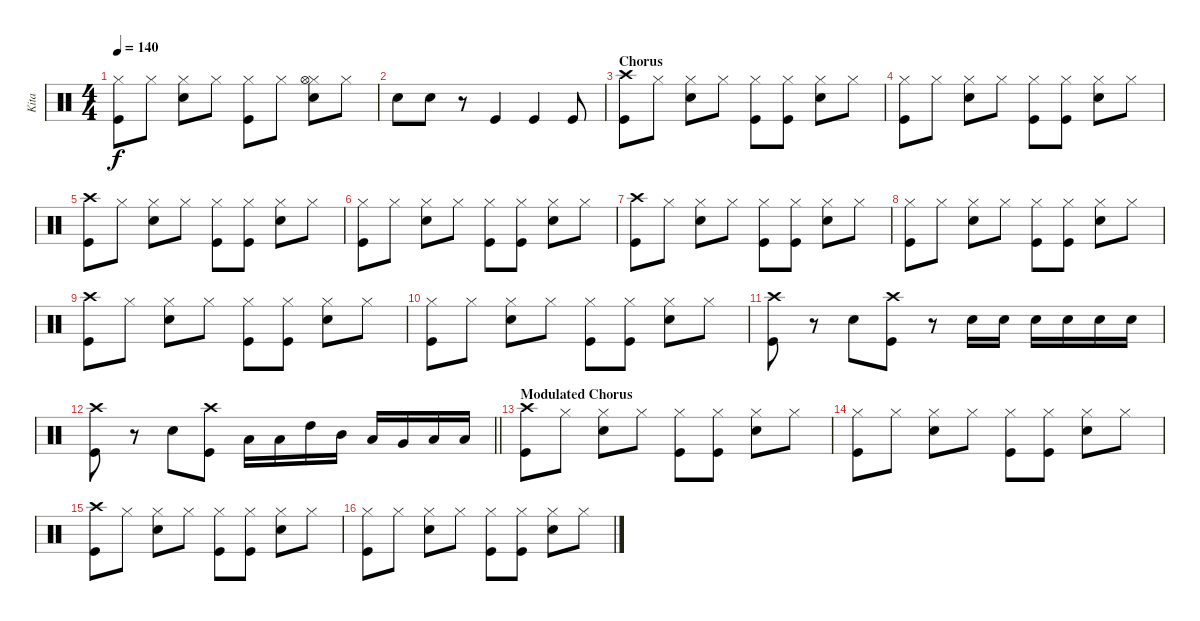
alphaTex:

\track ("Kita" "Kita") {instrument percussion}
\staff {score}
\articulation defaults
\ts (4 4)
\tempo 140
\clef neutral
\ks c
("Hi-Hat (closed)" "Kick (hit)").8{dy f} "Hi-Hat (closed)".8 ("Hi-Hat (closed)" "Snare (hit) 2").8 "Hi-Hat (closed)".8 ("Hi-Hat (closed)" "Kick (hit)").8 "Hi-Hat (closed)".8 ("Hi-Hat (closed)" "Snare (hit) 2" "Hi-Hat (open)").8 "Hi-Hat (closed)".8 |
"Snare (hit) 2".8 "Snare (hit) 2".8 r.8 "Kick (hit)".4 "Kick (hit)".4 "Kick (hit)".8 |
\section ("" "Chorus")
("Crash high (hit)" "Kick (hit)").8 "Hi-Hat (closed)".8 ("Hi-Hat (closed)" "Snare (hit) 2").8 "Hi-Hat (closed)".8 ("Hi-Hat (closed)" "Kick (hit)").8 ("Hi-Hat (closed)" "Kick (hit)").8 ("Hi-Hat (closed)" "Snare (hit) 2").8 "Hi-Hat (closed)".8 |
("Hi-Hat (closed)" "Kick (hit)").8 "Hi-Hat (closed)".8 ("Hi-Hat (closed)" "Snare (hit) 2").8 "Hi-Hat (closed)".8 ("Hi-Hat (closed)" "Kick (hit)").8 ("Hi-Hat (closed)" "Kick (hit)").8 ("Hi-Hat (closed)" "Snare (hit) 2").8 "Hi-Hat (closed)".8 |
("Crash high (hit)" "Kick (hit)").8 "Hi-Hat (closed)".8 ("Hi-Hat (closed)" "Snare (hit) 2").8 "Hi-Hat (closed)".8 ("Hi-Hat (closed)" "Kick (hit)").8 ("Hi-Hat (closed)" "Kick (hit)").8 ("Hi-Hat (closed)" "Snare (hit) 2").8 "Hi-Hat (closed)".8 |
("Hi-Hat (closed)" "Kick (hit)").8 "Hi-Hat (closed)".8 ("Hi-Hat (closed)" "Snare (hit) 2").8 "Hi-Hat (closed)".8 ("Hi-Hat (closed)" "Kick (hit)").8 ("Hi-Hat (closed)" "Kick (hit)").8 ("Hi-Hat (closed)" "Snare (hit) 2").8 "Hi-Hat (closed)".8 |
("Crash high (hit)" "Kick (hit)").8 "Hi-Hat (closed)".8 ("Hi-Hat (closed)" "Snare (hit) 2").8 "Hi-Hat (closed)".8 ("Hi-Hat (closed)" "Kick (hit)").8 ("Hi-Hat (closed)" "Kick (hit)").8 ("Hi-Hat (closed)" "Snare (hit) 2").8 "Hi-Hat (closed)".8 |
("Hi-Hat (closed)" "Kick (hit)").8 "Hi-Hat (closed)".8 ("Hi-Hat (closed)" "Snare (hit) 2").8 "Hi-Hat (closed)".8 ("Hi-Hat (closed)" "Kick (hit)").8 ("Hi-Hat (closed)" "Kick (hit)").8 ("Hi-Hat (closed)" "Snare (hit) 2").8 "Hi-Hat (closed)".8 |
("Crash high (hit)" "Kick (hit)").8 "Hi-Hat (closed)".8 ("Hi-Hat (closed)" "Snare (hit) 2").8 "Hi-Hat (closed)".8 ("Hi-Hat (closed)" "Kick (hit)").8 ("Hi-Hat (closed)" "Kick (hit)").8 ("Hi-Hat (closed)" "Snare (hit) 2").8 "Hi-Hat (closed)".8 |
("Hi-Hat (closed)" "Kick (hit)").8 "Hi-Hat (closed)".8 ("Hi-Hat (closed)" "Snare (hit) 2").8 "Hi-Hat (closed)".8 ("Hi-Hat (closed)" "Kick (hit)").8 ("Hi-Hat (closed)" "Kick (hit)").8 ("Hi-Hat (closed)" "Snare (hit) 2").8 "Hi-Hat (closed)".8 |
("Crash high (hit)" "Kick (hit)").8 r.8 "Snare (hit) 2".8 ("Crash high (hit)" "Kick (hit)").8 r.8 "Snare (hit) 2".16 "Snare (hit) 2".16 "Snare (hit) 2".16 "Snare (hit) 2".16 "Snare (hit) 2".16 "Snare (hit) 2".16 |
\barLineRight lightlight
("Crash high (hit)" "Kick (hit)").8 r.8 "Snare (hit) 2".8 ("Crash high (hit)" "Kick (hit)").8 "Low Floor Tom (hit)".16 "Low Floor Tom (hit)".16 "High Tom (hit)".16 "Mid Tom (hit)".16 "Low Tom (hit)".16 "Very Low Tom (hit)".16 "Low Floor Tom (hit)".16 "Low Floor Tom (hit)".16 |
\section ("" "Modulated Chorus")
("Crash high (hit)" "Kick (hit)").8 "Hi-Hat (closed)".8 ("Hi-Hat (closed)" "Snare (hit) 2").8 "Hi-Hat (closed)".8 ("Hi-Hat (closed)" "Kick (hit)").8 ("Hi-Hat (closed)" "Kick (hit)").8 ("Hi-Hat (closed)" "Snare (hit) 2").8 "Hi-Hat (closed)".8 |
("Hi-Hat (closed)" "Kick (hit)").8 "Hi-Hat (closed)".8 ("Hi-Hat (closed)" "Snare (hit) 2").8 "Hi-Hat (closed)".8 ("Hi-Hat (closed)" "Kick (hit)").8 ("Hi-Hat (closed)" "Kick (hit)").8 ("Hi-Hat (closed)" "Snare (hit) 2").8 "Hi-Hat (closed)".8 |
("Crash high (hit)" "Kick (hit)").8 "Hi-Hat (closed)".8 ("Hi-Hat (closed)" "Snare (hit) 2").8 "Hi-Hat (closed)".8 ("Hi-Hat (closed)" "Kick (hit)").8 ("Hi-Hat (closed)" "Kick (hit)").8 ("Hi-Hat (closed)" "Snare (hit) 2").8 "Hi-Hat (closed)".8 |
("Hi-Hat (closed)" "Kick (hit)").8 "Hi-Hat (closed)".8 ("Hi-Hat (closed)" "Snare (hit) 2").8 "Hi-Hat (closed)".8 ("Hi-Hat (closed)" "Kick (hit)").8 ("Hi-Hat (closed)" "Kick (hit)").8 ("Hi-Hat (closed)" "Snare (hit) 2").8 "Hi-Hat (closed)".8
